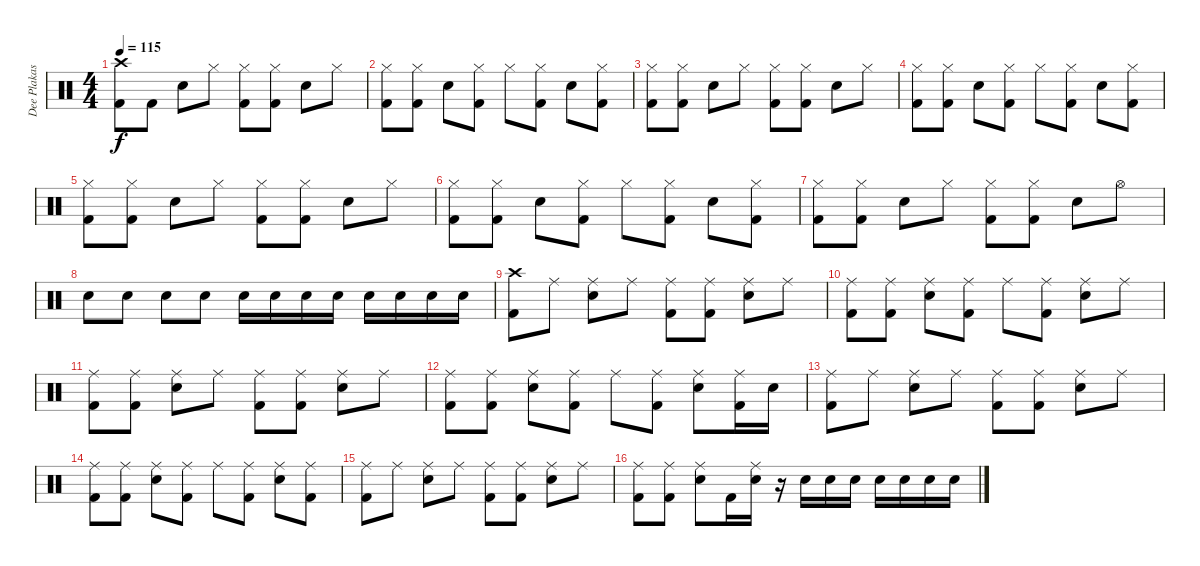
\track ("Dee Plakas" "Dee Plakas") {instrument percussion}
\staff {score}
\articulation defaults
\ts (4 4)
\tempo 115
\clef neutral
\ks c
("Crash high (hit)" "Kick (hit) 2").8{dy f} "Kick (hit) 2".8 "Snare (hit) 2".8 "Hi-Hat (closed)".8 ("Hi-Hat (closed)" "Kick (hit) 2").8 ("Hi-Hat (closed)" "Kick (hit) 2").8 "Snare (hit) 2".8 "Hi-Hat (closed)".8 |
("Hi-Hat (closed)" "Kick (hit) 2").8 ("Hi-Hat (closed)" "Kick (hit) 2").8 "Snare (hit) 2".8 ("Hi-Hat (closed)" "Kick (hit) 2").8 "Hi-Hat (closed)".8 ("Hi-Hat (closed)" "Kick (hit) 2").8 "Snare (hit) 2".8 ("Hi-Hat (closed)" "Kick (hit) 2").8 |
("Hi-Hat (closed)" "Kick (hit) 2").8 ("Hi-Hat (closed)" "Kick (hit) 2").8 "Snare (hit) 2".8 "Hi-Hat (closed)".8 ("Hi-Hat (closed)" "Kick (hit) 2").8 ("Hi-Hat (closed)" "Kick (hit) 2").8 "Snare (hit) 2".8 "Hi-Hat (closed)".8 |
("Hi-Hat (closed)" "Kick (hit) 2").8 ("Hi-Hat (closed)" "Kick (hit) 2").8 "Snare (hit) 2".8 ("Hi-Hat (closed)" "Kick (hit) 2").8 "Hi-Hat (closed)".8 ("Hi-Hat (closed)" "Kick (hit) 2").8 "Snare (hit) 2".8 ("Hi-Hat (closed)" "Kick (hit) 2").8 |
("Hi-Hat (closed)" "Kick (hit) 2").8 ("Hi-Hat (closed)" "Kick (hit) 2").8 "Snare (hit) 2".8 "Hi-Hat (closed)".8 ("Hi-Hat (closed)" "Kick (hit) 2").8 ("Hi-Hat (closed)" "Kick (hit) 2").8 "Snare (hit) 2".8 "Hi-Hat (closed)".8 |
("Hi-Hat (closed)" "Kick (hit) 2").8 ("Hi-Hat (closed)" "Kick (hit) 2").8 "Snare (hit) 2".8 ("Hi-Hat (closed)" "Kick (hit) 2").8 "Hi-Hat (closed)".8 ("Hi-Hat (closed)" "Kick (hit) 2").8 "Snare (hit) 2".8 ("Hi-Hat (closed)" "Kick (hit) 2").8 |
("Hi-Hat (closed)" "Kick (hit) 2").8 ("Hi-Hat (closed)" "Kick (hit) 2").8 "Snare (hit) 2".8 "Hi-Hat (closed)".8 ("Hi-Hat (closed)" "Kick (hit) 2").8 ("Hi-Hat (closed)" "Kick (hit) 2").8 "Snare (hit) 2".8 "Hi-Hat (open)".8 |
"Snare (hit) 2".8 "Snare (hit) 2".8 "Snare (hit) 2".8 "Snare (hit) 2".8 "Snare (hit) 2".16 "Snare (hit) 2".16 "Snare (hit) 2".16 "Snare (hit) 2".16 "Snare (hit) 2".16 "Snare (hit) 2".16 "Snare (hit) 2".16 "Snare (hit) 2".16 |
("Crash high (hit)" "Kick (hit) 2").8 "Ride (middle)".8 ("Ride (middle)" "Snare (hit) 2").8 "Ride (middle)".8 ("Ride (middle)" "Kick (hit) 2").8 ("Ride (middle)" "Kick (hit) 2").8 ("Ride (middle)" "Snare (hit) 2").8 "Ride (middle)".8 |
("Ride (middle)" "Kick (hit) 2").8 ("Ride (middle)" "Kick (hit) 2").8 ("Ride (middle)" "Snare (hit) 2").8 ("Ride (middle)" "Kick (hit) 2").8 "Ride (middle)".8 ("Ride (middle)" "Kick (hit) 2").8 ("Ride (middle)" "Snare (hit) 2").8 "Ride (middle)".8 |
("Ride (middle)" "Kick (hit) 2").8 ("Ride (middle)" "Kick (hit) 2").8 ("Ride (middle)" "Snare (hit) 2").8 "Ride (middle)".8 ("Ride (middle)" "Kick (hit) 2").8 ("Ride (middle)" "Kick (hit) 2").8 ("Ride (middle)" "Snare (hit) 2").8 "Ride (middle)".8 |
("Ride (middle)" "Kick (hit) 2").8 ("Ride (middle)" "Kick (hit) 2").8 ("Ride (middle)" "Snare (hit) 2").8 ("Ride (middle)" "Kick (hit) 2").8 "Ride (middle)".8 ("Ride (middle)" "Kick (hit) 2").8 ("Ride (middle)" "Snare (hit) 2").8 ("Ride (middle)" "Kick (hit) 2").16 "Snare (hit) 2".16 |
("Ride (middle)" "Kick (hit) 2").8 "Ride (middle)".8 ("Ride (middle)" "Snare (hit) 2").8 "Ride (middle)".8 ("Ride (middle)" "Kick (hit) 2").8 ("Ride (middle)" "Kick (hit) 2").8 ("Ride (middle)" "Snare (hit) 2").8 "Ride (middle)".8 |
("Ride (middle)" "Kick (hit) 2").8 ("Ride (middle)" "Kick (hit) 2").8 ("Ride (middle)" "Snare (hit) 2").8 ("Ride (middle)" "Kick (hit) 2").8 "Ride (middle)".8 ("Ride (middle)" "Kick (hit) 2").8 ("Ride (middle)" "Snare (hit) 2").8 ("Ride (middle)" "Kick (hit) 2").8 |
("Ride (middle)" "Kick (hit) 2").8 "Ride (middle)".8 ("Ride (middle)" "Snare (hit) 2").8 "Ride (middle)".8 ("Ride (middle)" "Kick (hit) 2").8 ("Ride (middle)" "Kick (hit) 2").8 ("Ride (middle)" "Snare (hit) 2").8 "Ride (middle)".8 |
("Ride (middle)" "Kick (hit) 2").8 ("Ride (middle)" "Kick (hit) 2").8 ("Ride (middle)" "Snare (hit) 2").8 "Kick (hit) 2".16 ("Ride (middle)" "Snare (hit) 2").16 r.16 "Snare (hit) 2".16 "Snare (hit) 2".16 "Snare (hit) 2".16 "Snare (hit) 2".16 "Snare (hit) 2".16 "Snare (hit) 2".16 "Snare (hit) 2".16
